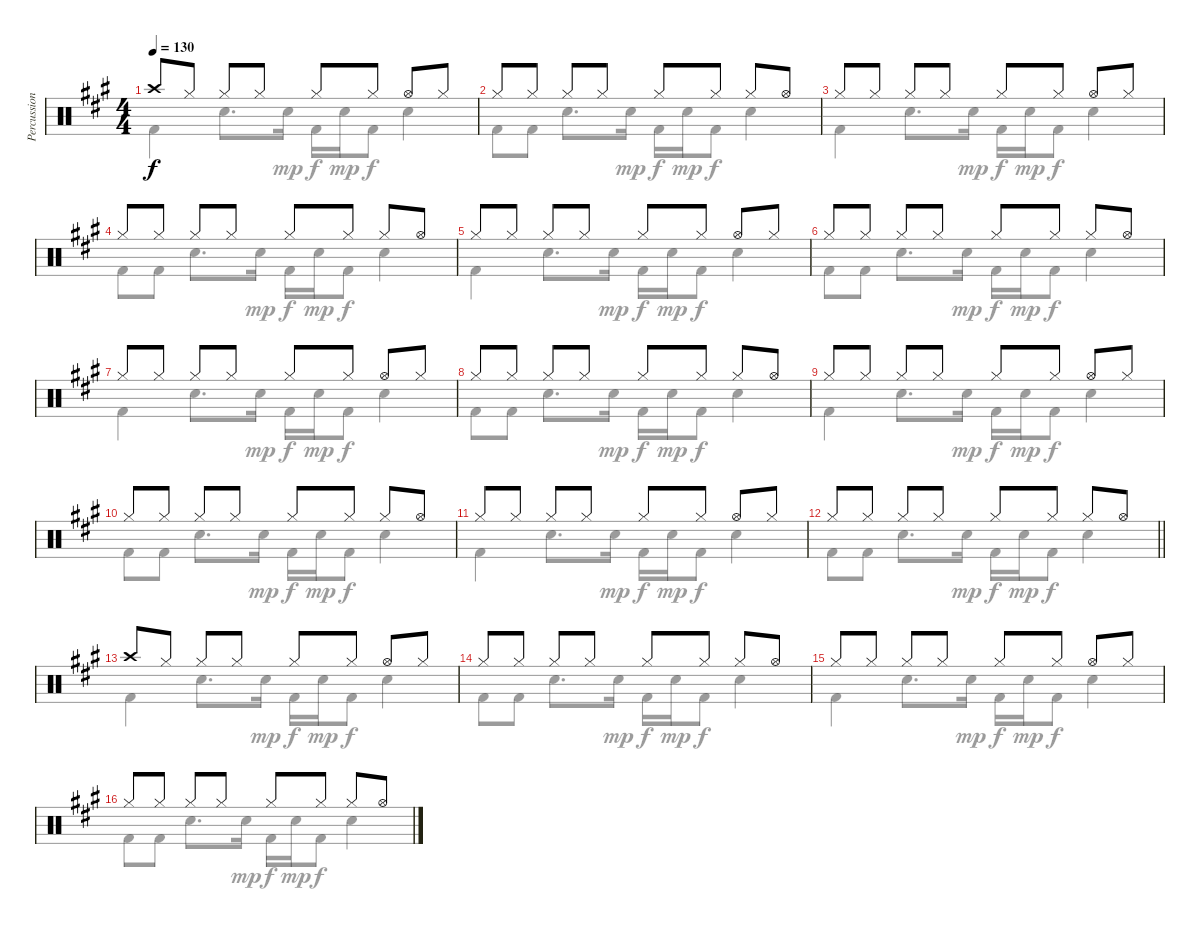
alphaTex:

\track ("Percussion" "Percussion") {instrument percussion}
\staff {score}
\articulation defaults
\voice
\ts (4 4)
\tempo 130
\clef neutral
\ks a "Crash high (hit)".8{dy f} "Hi-Hat (closed)".8 "Hi-Hat (closed)".8 "Hi-Hat (closed)".8 "Hi-Hat (closed)".8 "Hi-Hat (closed)".8 "Hi-Hat (open)".8 "Hi-Hat (closed)".8
|
"Hi-Hat (closed)".8 "Hi-Hat (closed)".8 "Hi-Hat (closed)".8 "Hi-Hat (closed)".8 "Hi-Hat (closed)".8 "Hi-Hat (closed)".8 "Hi-Hat (closed)".8 "Hi-Hat (open)".8 |
"Hi-Hat (closed)".8 "Hi-Hat (closed)".8 "Hi-Hat (closed)".8 "Hi-Hat (closed)".8 "Hi-Hat (closed)".8 "Hi-Hat (closed)".8 "Hi-Hat (open)".8 "Hi-Hat (closed)".8 |
"Hi-Hat (closed)".8 "Hi-Hat (closed)".8 "Hi-Hat (closed)".8 "Hi-Hat (closed)".8 "Hi-Hat (closed)".8 "Hi-Hat (closed)".8 "Hi-Hat (closed)".8 "Hi-Hat (open)".8 |
"Hi-Hat (closed)".8 "Hi-Hat (closed)".8 "Hi-Hat (closed)".8 "Hi-Hat (closed)".8 "Hi-Hat (closed)".8 "Hi-Hat (closed)".8 "Hi-Hat (open)".8 "Hi-Hat (closed)".8 |
"Hi-Hat (closed)".8 "Hi-Hat (closed)".8 "Hi-Hat (closed)".8 "Hi-Hat (closed)".8 "Hi-Hat (closed)".8 "Hi-Hat (closed)".8 "Hi-Hat (closed)".8 "Hi-Hat (open)".8 |
"Hi-Hat (closed)".8 "Hi-Hat (closed)".8 "Hi-Hat (closed)".8 "Hi-Hat (closed)".8 "Hi-Hat (closed)".8 "Hi-Hat (closed)".8 "Hi-Hat (open)".8 "Hi-Hat (closed)".8 |
"Hi-Hat (closed)".8 "Hi-Hat (closed)".8 "Hi-Hat (closed)".8 "Hi-Hat (closed)".8 "Hi-Hat (closed)".8 "Hi-Hat (closed)".8 "Hi-Hat (closed)".8 "Hi-Hat (open)".8 |
"Hi-Hat (closed)".8 "Hi-Hat (closed)".8 "Hi-Hat (closed)".8 "Hi-Hat (closed)".8 "Hi-Hat (closed)".8 "Hi-Hat (closed)".8 "Hi-Hat (open)".8 "Hi-Hat (closed)".8 |
"Hi-Hat (closed)".8 "Hi-Hat (closed)".8 "Hi-Hat (closed)".8 "Hi-Hat (closed)".8 "Hi-Hat (closed)".8 "Hi-Hat (closed)".8 "Hi-Hat (closed)".8 "Hi-Hat (open)".8 |
"Hi-Hat (closed)".8 "Hi-Hat (closed)".8 "Hi-Hat (closed)".8 "Hi-Hat (closed)".8 "Hi-Hat (closed)".8 "Hi-Hat (closed)".8 "Hi-Hat (open)".8 "Hi-Hat (closed)".8 |
\barLineRight lightlight "Hi-Hat (closed)".8 "Hi-Hat (closed)".8 "Hi-Hat (closed)".8 "Hi-Hat (closed)".8 "Hi-Hat (closed)".8 "Hi-Hat (closed)".8 "Hi-Hat (closed)".8 "Hi-Hat (open)".8
|
"Crash high (hit)".8 "Hi-Hat (closed)".8 "Hi-Hat (closed)".8 "Hi-Hat (closed)".8 "Hi-Hat (closed)".8 "Hi-Hat (closed)".8 "Hi-Hat (open)".8 "Hi-Hat (closed)".8 |
"Hi-Hat (closed)".8 "Hi-Hat (closed)".8 "Hi-Hat (closed)".8 "Hi-Hat (closed)".8 "Hi-Hat (closed)".8 "Hi-Hat (closed)".8 "Hi-Hat (closed)".8 "Hi-Hat (open)".8 |
"Hi-Hat (closed)".8 "Hi-Hat (closed)".8 "Hi-Hat (closed)".8 "Hi-Hat (closed)".8 "Hi-Hat (closed)".8 "Hi-Hat (closed)".8 "Hi-Hat (open)".8 "Hi-Hat (closed)".8 |
"Hi-Hat (closed)".8 "Hi-Hat (closed)".8 "Hi-Hat (closed)".8 "Hi-Hat (closed)".8 "Hi-Hat (closed)".8 "Hi-Hat (closed)".8 "Hi-Hat (closed)".8 "Hi-Hat (open)".8
\voice
\clef neutral
\ottava regular
\simile none
\ks a "Kick (hit) 2".4{dy f} "Electric Snare (hit)".8{d} "Electric Snare (hit)".16{dy mp} "Kick (hit) 2".16{dy f} "Electric Snare (hit)".16{dy mp} "Kick (hit) 2".8{dy f} "Electric Snare (hit)".4
|
"Kick (hit) 2".8 "Kick (hit) 2".8 "Electric Snare (hit)".8{d} "Electric Snare (hit)".16{dy mp} "Kick (hit) 2".16{dy f} "Electric Snare (hit)".16{dy mp} "Kick (hit) 2".8{dy f} "Electric Snare (hit)".4 |
"Kick (hit) 2".4 "Electric Snare (hit)".8{d} "Electric Snare (hit)".16{dy mp} "Kick (hit) 2".16{dy f} "Electric Snare (hit)".16{dy mp} "Kick (hit) 2".8{dy f} "Electric Snare (hit)".4 |
"Kick (hit) 2".8 "Kick (hit) 2".8 "Electric Snare (hit)".8{d} "Electric Snare (hit)".16{dy mp} "Kick (hit) 2".16{dy f} "Electric Snare (hit)".16{dy mp} "Kick (hit) 2".8{dy f} "Electric Snare (hit)".4 |
"Kick (hit) 2".4 "Electric Snare (hit)".8{d} "Electric Snare (hit)".16{dy mp} "Kick (hit) 2".16{dy f} "Electric Snare (hit)".16{dy mp} "Kick (hit) 2".8{dy f} "Electric Snare (hit)".4 |
"Kick (hit) 2".8 "Kick (hit) 2".8 "Electric Snare (hit)".8{d} "Electric Snare (hit)".16{dy mp} "Kick (hit) 2".16{dy f} "Electric Snare (hit)".16{dy mp} "Kick (hit) 2".8{dy f} "Electric Snare (hit)".4 |
"Kick (hit) 2".4 "Electric Snare (hit)".8{d} "Electric Snare (hit)".16{dy mp} "Kick (hit) 2".16{dy f} "Electric Snare (hit)".16{dy mp} "Kick (hit) 2".8{dy f} "Electric Snare (hit)".4 |
"Kick (hit) 2".8 "Kick (hit) 2".8 "Electric Snare (hit)".8{d} "Electric Snare (hit)".16{dy mp} "Kick (hit) 2".16{dy f} "Electric Snare (hit)".16{dy mp} "Kick (hit) 2".8{dy f} "Electric Snare (hit)".4 |
"Kick (hit) 2".4 "Electric Snare (hit)".8{d} "Electric Snare (hit)".16{dy mp} "Kick (hit) 2".16{dy f} "Electric Snare (hit)".16{dy mp} "Kick (hit) 2".8{dy f} "Electric Snare (hit)".4 |
"Kick (hit) 2".8 "Kick (hit) 2".8 "Electric Snare (hit)".8{d} "Electric Snare (hit)".16{dy mp} "Kick (hit) 2".16{dy f} "Electric Snare (hit)".16{dy mp} "Kick (hit) 2".8{dy f} "Electric Snare (hit)".4 |
"Kick (hit) 2".4 "Electric Snare (hit)".8{d} "Electric Snare (hit)".16{dy mp} "Kick (hit) 2".16{dy f} "Electric Snare (hit)".16{dy mp} "Kick (hit) 2".8{dy f} "Electric Snare (hit)".4 |
\barLineRight lightlight "Kick (hit) 2".8 "Kick (hit) 2".8 "Electric Snare (hit)".8{d} "Electric Snare (hit)".16{dy mp} "Kick (hit) 2".16{dy f} "Electric Snare (hit)".16{dy mp} "Kick (hit) 2".8{dy f} "Electric Snare (hit)".4
|
"Kick (hit) 2".4 "Electric Snare (hit)".8{d} "Electric Snare (hit)".16{dy mp} "Kick (hit) 2".16{dy f} "Electric Snare (hit)".16{dy mp} "Kick (hit) 2".8{dy f} "Electric Snare (hit)".4 |
"Kick (hit) 2".8 "Kick (hit) 2".8 "Electric Snare (hit)".8{d} "Electric Snare (hit)".16{dy mp} "Kick (hit) 2".16{dy f} "Electric Snare (hit)".16{dy mp} "Kick (hit) 2".8{dy f} "Electric Snare (hit)".4 |
"Kick (hit) 2".4 "Electric Snare (hit)".8{d} "Electric Snare (hit)".16{dy mp} "Kick (hit) 2".16{dy f} "Electric Snare (hit)".16{dy mp} "Kick (hit) 2".8{dy f} "Electric Snare (hit)".4 |
"Kick (hit) 2".8 "Kick (hit) 2".8 "Electric Snare (hit)".8{d} "Electric Snare (hit)".16{dy mp} "Kick (hit) 2".16{dy f} "Electric Snare (hit)".16{dy mp} "Kick (hit) 2".8{dy f} "Electric Snare (hit)".4
